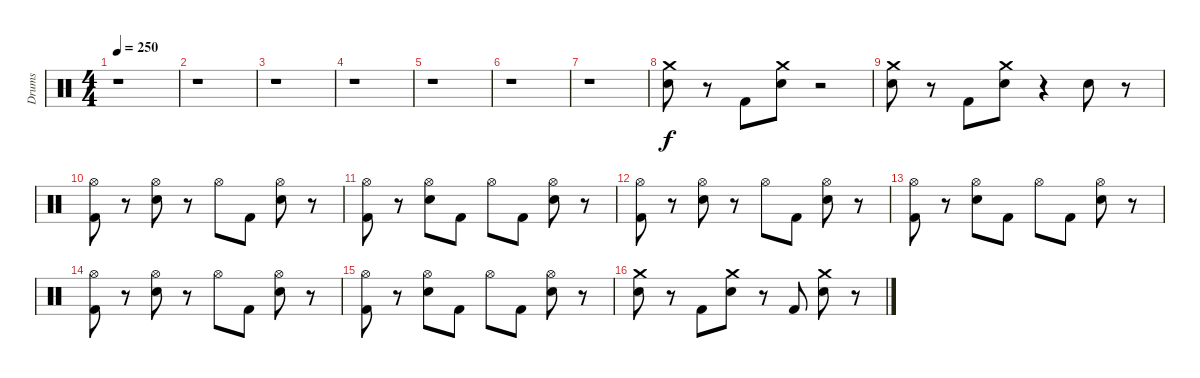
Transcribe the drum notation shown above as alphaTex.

\track ("Drums" "Drums") {instrument percussion}
\staff {score}
\articulation defaults
\ts (4 4)
\tempo 250
\clef neutral
\ks c
r.1{dy f} |
r.1 |
r.1 |
r.1 |
r.1 |
r.1 |
r.1 |
("Electric Snare (hit)" "Crash medium (hit)").8 r.8 "Kick (hit) 2".8 ("Electric Snare (hit)" "Crash medium (hit)").8 r.2 |
("Electric Snare (hit)" "Crash medium (hit)").8 r.8 "Kick (hit) 2".8 ("Electric Snare (hit)" "Crash medium (hit)").8 r.4 "Electric Snare (hit)".8 r.8 |
("Hi-Hat (open)" "Kick (hit) 2").8 r.8 ("Hi-Hat (open)" "Electric Snare (hit)").8 r.8 "Hi-Hat (open)".8 "Kick (hit) 2".8 ("Hi-Hat (open)" "Electric Snare (hit)").8 r.8 |
("Hi-Hat (open)" "Kick (hit) 2").8 r.8 ("Hi-Hat (open)" "Electric Snare (hit)").8 "Kick (hit) 2".8 "Hi-Hat (open)".8 "Kick (hit) 2".8 ("Hi-Hat (open)" "Electric Snare (hit)").8 r.8 |
("Hi-Hat (open)" "Kick (hit) 2").8 r.8 ("Hi-Hat (open)" "Electric Snare (hit)").8 r.8 "Hi-Hat (open)".8 "Kick (hit) 2".8 ("Hi-Hat (open)" "Electric Snare (hit)").8 r.8 |
("Hi-Hat (open)" "Kick (hit) 2").8 r.8 ("Hi-Hat (open)" "Electric Snare (hit)").8 "Kick (hit) 2".8 "Hi-Hat (open)".8 "Kick (hit) 2".8 ("Hi-Hat (open)" "Electric Snare (hit)").8 r.8 |
("Hi-Hat (open)" "Kick (hit) 2").8 r.8 ("Hi-Hat (open)" "Electric Snare (hit)").8 r.8 "Hi-Hat (open)".8 "Kick (hit) 2".8 ("Hi-Hat (open)" "Electric Snare (hit)").8 r.8 |
("Hi-Hat (open)" "Kick (hit) 2").8 r.8 ("Hi-Hat (open)" "Electric Snare (hit)").8 "Kick (hit) 2".8 "Hi-Hat (open)".8 "Kick (hit) 2".8 ("Hi-Hat (open)" "Electric Snare (hit)").8 r.8 |
("Electric Snare (hit)" "Crash medium (hit)").8 r.8 "Kick (hit) 2".8 ("Electric Snare (hit)" "Crash medium (hit)").8 r.8 "Kick (hit) 2".8 ("Crash medium (hit)" "Electric Snare (hit)").8 r.8
